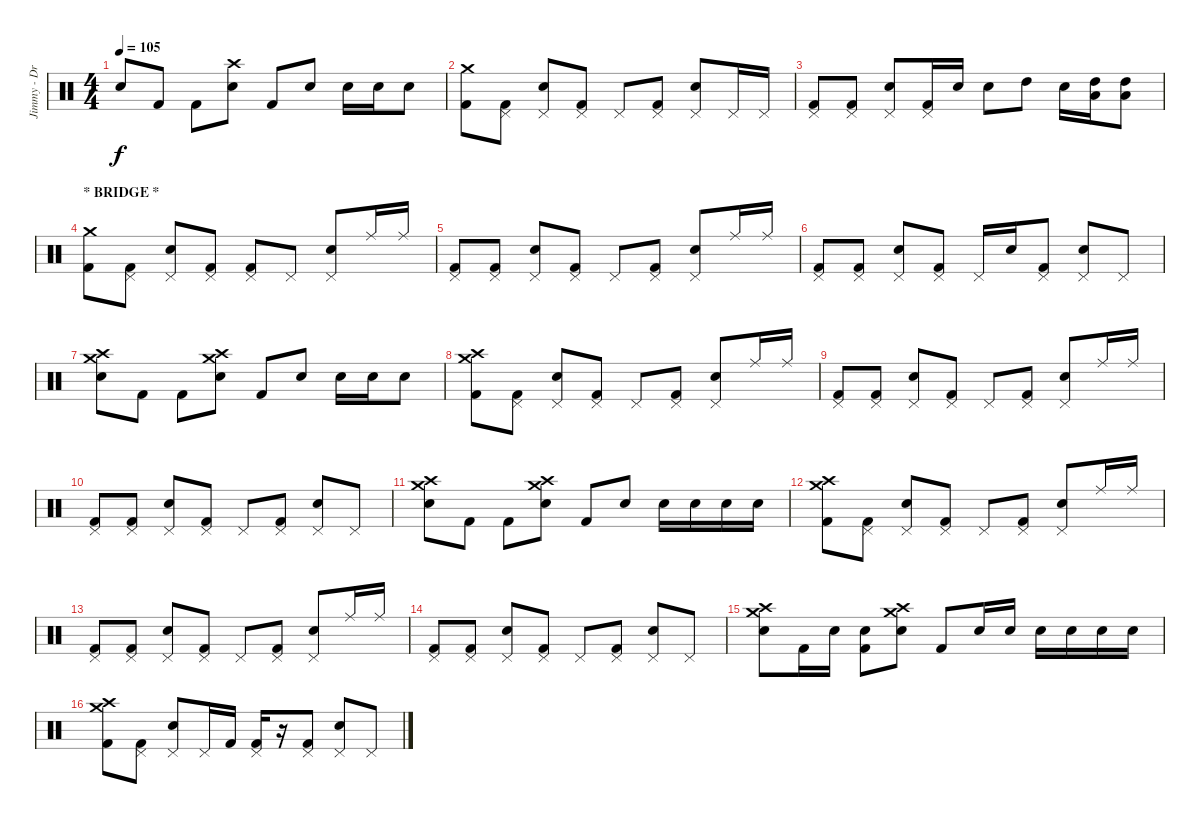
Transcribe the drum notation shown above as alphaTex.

\track ("Jimmy - Drums" "Jimmy - Dr") {instrument percussion}
\staff {score}
\articulation defaults
\ts (4 4)
\tempo 105
\clef neutral
\ks c "Electric Snare (hit)".8{dy f} "Kick (hit) 2".8 "Kick (hit) 2".8
("Crash high (hit)" "Electric Snare (hit)").8 "Kick (hit) 2".8 "Electric Snare (hit)".8 "Electric Snare (hit)".16 "Electric Snare (hit)".16 "Electric Snare (hit)".8 |
("Crash medium (hit)" "Kick (hit) 2").8 ("Pedal Hi-Hat (hit)" "Kick (hit) 2").8 ("Pedal Hi-Hat (hit)" "Electric Snare (hit)").8 ("Pedal Hi-Hat (hit)" "Kick (hit) 2").8 "Pedal Hi-Hat (hit)".8 ("Pedal Hi-Hat (hit)" "Kick (hit) 2").8 ("Pedal Hi-Hat (hit)" "Electric Snare (hit)").8 "Pedal Hi-Hat (hit)".16 "Pedal Hi-Hat (hit)".16 |
("Pedal Hi-Hat (hit)" "Kick (hit) 2").8 ("Pedal Hi-Hat (hit)" "Kick (hit) 2").8 ("Pedal Hi-Hat (hit)" "Electric Snare (hit)").8 ("Pedal Hi-Hat (hit)" "Kick (hit) 2").16 "Electric Snare (hit)".16 "Electric Snare (hit)".8 "High Tom (hit)".8 "Electric Snare (hit)".16 ("High Tom (hit)" "Low Tom (hit)").16 ("High Tom (hit)" "Low Tom (hit)").8 |
\section ("" "* BRIDGE *")
("Crash medium (hit)" "Kick (hit) 2").8 ("Pedal Hi-Hat (hit)" "Kick (hit) 2").8 ("Pedal Hi-Hat (hit)" "Electric Snare (hit)").8 ("Pedal Hi-Hat (hit)" "Kick (hit) 2").8 ("Pedal Hi-Hat (hit)" "Kick (hit) 2").8 "Pedal Hi-Hat (hit)".8 ("Pedal Hi-Hat (hit)" "Electric Snare (hit)").8 "Ride (middle)".16 "Ride (middle)".16 |
("Pedal Hi-Hat (hit)" "Kick (hit) 2").8 ("Pedal Hi-Hat (hit)" "Kick (hit) 2").8 ("Pedal Hi-Hat (hit)" "Electric Snare (hit)").8 ("Pedal Hi-Hat (hit)" "Kick (hit) 2").8 "Pedal Hi-Hat (hit)".8 ("Pedal Hi-Hat (hit)" "Kick (hit) 2").8 ("Pedal Hi-Hat (hit)" "Electric Snare (hit)").8 "Ride (middle)".16 "Ride (middle)".16 |
("Pedal Hi-Hat (hit)" "Kick (hit) 2").8 ("Pedal Hi-Hat (hit)" "Kick (hit) 2").8 ("Pedal Hi-Hat (hit)" "Electric Snare (hit)").8 ("Pedal Hi-Hat (hit)" "Kick (hit) 2").8 "Pedal Hi-Hat (hit)".16 "Electric Snare (hit)".16 ("Pedal Hi-Hat (hit)" "Kick (hit) 2").8 ("Pedal Hi-Hat (hit)" "Electric Snare (hit)").8 "Pedal Hi-Hat (hit)".8 |
("Crash medium (hit)" "Crash high (hit)" "Electric Snare (hit)").8 "Kick (hit) 2".8 "Kick (hit) 2".8 ("Crash medium (hit)" "Crash high (hit)" "Electric Snare (hit)").8 "Kick (hit) 2".8 "Electric Snare (hit)".8 "Electric Snare (hit)".16 "Electric Snare (hit)".16 "Electric Snare (hit)".8 |
("Crash medium (hit)" "Crash high (hit)" "Kick (hit) 2").8 ("Pedal Hi-Hat (hit)" "Kick (hit) 2").8 ("Pedal Hi-Hat (hit)" "Electric Snare (hit)").8 ("Pedal Hi-Hat (hit)" "Kick (hit) 2").8 "Pedal Hi-Hat (hit)".8 ("Pedal Hi-Hat (hit)" "Kick (hit) 2").8 ("Pedal Hi-Hat (hit)" "Electric Snare (hit)").8 "Ride (middle)".16 "Ride (middle)".16 |
("Pedal Hi-Hat (hit)" "Kick (hit) 2").8 ("Pedal Hi-Hat (hit)" "Kick (hit) 2").8 ("Pedal Hi-Hat (hit)" "Electric Snare (hit)").8 ("Pedal Hi-Hat (hit)" "Kick (hit) 2").8 "Pedal Hi-Hat (hit)".8 ("Pedal Hi-Hat (hit)" "Kick (hit) 2").8 ("Pedal Hi-Hat (hit)" "Electric Snare (hit)").8 "Ride (middle)".16 "Ride (middle)".16 |
("Pedal Hi-Hat (hit)" "Kick (hit) 2").8 ("Pedal Hi-Hat (hit)" "Kick (hit) 2").8 ("Pedal Hi-Hat (hit)" "Electric Snare (hit)").8 ("Pedal Hi-Hat (hit)" "Kick (hit) 2").8 "Pedal Hi-Hat (hit)".8 ("Pedal Hi-Hat (hit)" "Kick (hit) 2").8 ("Pedal Hi-Hat (hit)" "Electric Snare (hit)").8 "Pedal Hi-Hat (hit)".8 |
("Crash medium (hit)" "Crash high (hit)" "Electric Snare (hit)").8 "Kick (hit) 2".8 "Kick (hit) 2".8 ("Crash medium (hit)" "Crash high (hit)" "Electric Snare (hit)").8 "Kick (hit) 2".8 "Electric Snare (hit)".8 "Electric Snare (hit)".16 "Electric Snare (hit)".16 "Electric Snare (hit)".16 "Electric Snare (hit)".16 |
("Crash medium (hit)" "Crash high (hit)" "Kick (hit) 2").8 ("Pedal Hi-Hat (hit)" "Kick (hit) 2").8 ("Pedal Hi-Hat (hit)" "Electric Snare (hit)").8 ("Pedal Hi-Hat (hit)" "Kick (hit) 2").8 "Pedal Hi-Hat (hit)".8 ("Pedal Hi-Hat (hit)" "Kick (hit) 2").8 ("Pedal Hi-Hat (hit)" "Electric Snare (hit)").8 "Ride (middle)".16 "Ride (middle)".16 |
("Pedal Hi-Hat (hit)" "Kick (hit) 2").8 ("Pedal Hi-Hat (hit)" "Kick (hit) 2").8 ("Pedal Hi-Hat (hit)" "Electric Snare (hit)").8 ("Pedal Hi-Hat (hit)" "Kick (hit) 2").8 "Pedal Hi-Hat (hit)".8 ("Pedal Hi-Hat (hit)" "Kick (hit) 2").8 ("Pedal Hi-Hat (hit)" "Electric Snare (hit)").8 "Ride (middle)".16 "Ride (middle)".16 |
("Pedal Hi-Hat (hit)" "Kick (hit) 2").8 ("Pedal Hi-Hat (hit)" "Kick (hit) 2").8 ("Pedal Hi-Hat (hit)" "Electric Snare (hit)").8 ("Pedal Hi-Hat (hit)" "Kick (hit) 2").8 "Pedal Hi-Hat (hit)".8 ("Pedal Hi-Hat (hit)" "Kick (hit) 2").8 ("Pedal Hi-Hat (hit)" "Electric Snare (hit)").8 "Pedal Hi-Hat (hit)".8 |
("Crash medium (hit)" "Crash high (hit)" "Electric Snare (hit)").8 "Kick (hit) 2".16 "Electric Snare (hit)".16 ("Electric Snare (hit)" "Kick (hit) 2").8 ("Crash medium (hit)" "Crash high (hit)" "Electric Snare (hit)").8 "Kick (hit) 2".8 "Electric Snare (hit)".16 "Electric Snare (hit)".16 "Electric Snare (hit)".16 "Electric Snare (hit)".16 "Electric Snare (hit)".16 "Electric Snare (hit)".16 |
("Crash medium (hit)" "Crash high (hit)" "Kick (hit) 2").8 ("Pedal Hi-Hat (hit)" "Kick (hit) 2").8 ("Pedal Hi-Hat (hit)" "Electric Snare (hit)").8 "Pedal Hi-Hat (hit)".16 "Kick (hit) 2".16 ("Pedal Hi-Hat (hit)" "Kick (hit) 2").16 r.16 ("Pedal Hi-Hat (hit)" "Kick (hit) 2").8 ("Pedal Hi-Hat (hit)" "Electric Snare (hit)").8 "Pedal Hi-Hat (hit)".8
